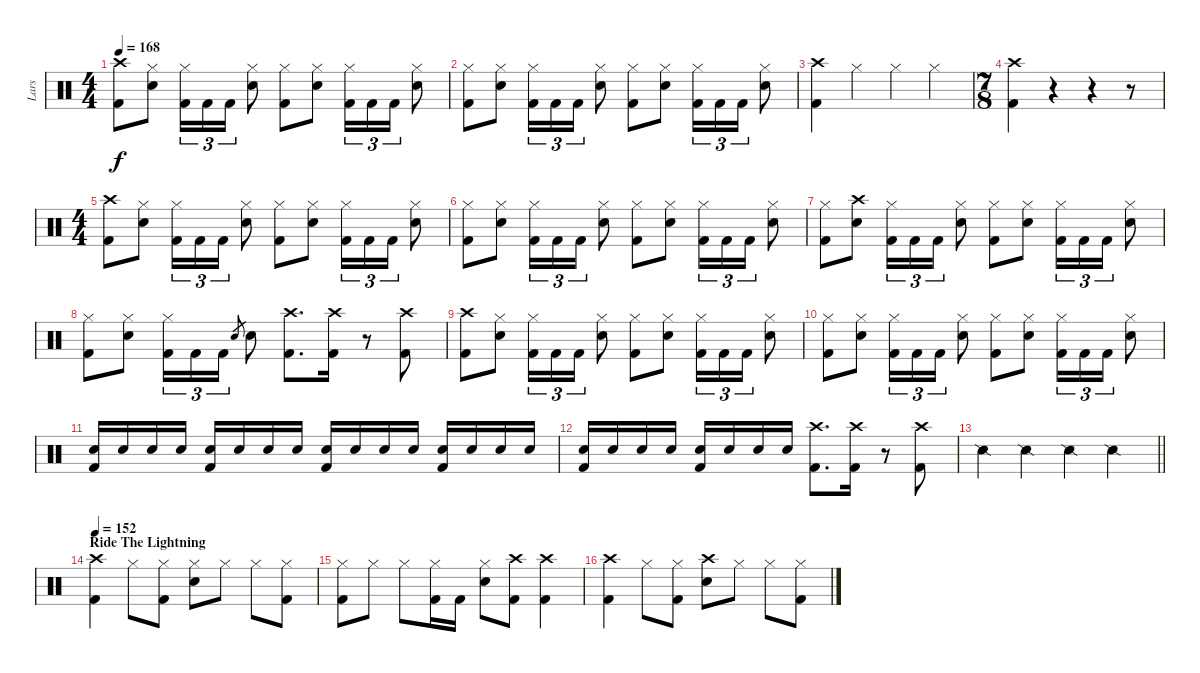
\track ("Lars" "Lars") {instrument percussion}
\staff {score}
\articulation defaults
\ts (4 4)
\tempo 168
\clef neutral
\ks c
("Crash high (hit)" "Kick (hit) 2").8{dy f} ("Hi-Hat (closed)" "Snare (hit) 2").8 ("Hi-Hat (closed)" "Kick (hit) 2").16{tu (3 2)} "Kick (hit) 2".16{tu (3 2)} "Kick (hit) 2".16{tu (3 2)} ("Hi-Hat (closed)" "Snare (hit) 2").8 ("Hi-Hat (closed)" "Kick (hit) 2").8 ("Hi-Hat (closed)" "Snare (hit) 2").8 ("Hi-Hat (closed)" "Kick (hit) 2").16{tu (3 2)} "Kick (hit) 2".16{tu (3 2)} "Kick (hit) 2".16{tu (3 2)} ("Hi-Hat (closed)" "Snare (hit) 2").8 |
("Hi-Hat (closed)" "Kick (hit) 2").8 ("Hi-Hat (closed)" "Snare (hit) 2").8 ("Hi-Hat (closed)" "Kick (hit) 2").16{tu (3 2)} "Kick (hit) 2".16{tu (3 2)} "Kick (hit) 2".16{tu (3 2)} ("Hi-Hat (closed)" "Snare (hit) 2").8 ("Hi-Hat (closed)" "Kick (hit) 2").8 ("Hi-Hat (closed)" "Snare (hit) 2").8 ("Hi-Hat (closed)" "Kick (hit) 2").16{tu (3 2)} "Kick (hit) 2".16{tu (3 2)} "Kick (hit) 2".16{tu (3 2)} ("Hi-Hat (closed)" "Snare (hit) 2").8 |
("Crash high (hit)" "Kick (hit) 2").4 "Hi-Hat (closed)".4 "Hi-Hat (closed)".4 "Hi-Hat (closed)".4 |
\ts (7 8)
("Crash high (hit)" "Kick (hit) 2").4 r.4 r.4 r.8 |
\ts (4 4)
("Crash high (hit)" "Kick (hit) 2").8 ("Hi-Hat (closed)" "Snare (hit) 2").8 ("Hi-Hat (closed)" "Kick (hit) 2").16{tu (3 2)} "Kick (hit) 2".16{tu (3 2)} "Kick (hit) 2".16{tu (3 2)} ("Hi-Hat (closed)" "Snare (hit) 2").8 ("Hi-Hat (closed)" "Kick (hit) 2").8 ("Hi-Hat (closed)" "Snare (hit) 2").8 ("Hi-Hat (closed)" "Kick (hit) 2").16{tu (3 2)} "Kick (hit) 2".16{tu (3 2)} "Kick (hit) 2".16{tu (3 2)} ("Hi-Hat (closed)" "Snare (hit) 2").8 |
("Hi-Hat (closed)" "Kick (hit) 2").8 ("Hi-Hat (closed)" "Snare (hit) 2").8 ("Hi-Hat (closed)" "Kick (hit) 2").16{tu (3 2)} "Kick (hit) 2".16{tu (3 2)} "Kick (hit) 2".16{tu (3 2)} ("Hi-Hat (closed)" "Snare (hit) 2").8 ("Hi-Hat (closed)" "Kick (hit) 2").8 ("Hi-Hat (closed)" "Snare (hit) 2").8 ("Hi-Hat (closed)" "Kick (hit) 2").16{tu (3 2)} "Kick (hit) 2".16{tu (3 2)} "Kick (hit) 2".16{tu (3 2)} ("Hi-Hat (closed)" "Snare (hit) 2").8 |
("Hi-Hat (closed)" "Kick (hit) 2").8 ("Crash high (hit)" "Snare (hit) 2").8 ("Hi-Hat (closed)" "Kick (hit) 2").16{tu (3 2)} "Kick (hit) 2".16{tu (3 2)} "Kick (hit) 2".16{tu (3 2)} ("Hi-Hat (closed)" "Snare (hit) 2").8 ("Hi-Hat (closed)" "Kick (hit) 2").8 ("Hi-Hat (closed)" "Snare (hit) 2").8 ("Hi-Hat (closed)" "Kick (hit) 2").16{tu (3 2)} "Kick (hit) 2".16{tu (3 2)} "Kick (hit) 2".16{tu (3 2)} ("Hi-Hat (closed)" "Snare (hit) 2").8 |
("Hi-Hat (closed)" "Kick (hit) 2").8 ("Hi-Hat (closed)" "Snare (hit) 2").8 ("Hi-Hat (closed)" "Kick (hit) 2").16{tu (3 2)} "Kick (hit) 2".16{tu (3 2)} "Kick (hit) 2".16{tu (3 2)} "Snare (hit) 2".8{gr} "Snare (hit) 2".8 ("Crash high (hit)" "Kick (hit) 2").8{d} ("Crash high (hit)" "Kick (hit) 2").16 r.8 ("Crash high (hit)" "Kick (hit) 2").8 |
("Crash high (hit)" "Kick (hit) 2").8 ("Hi-Hat (closed)" "Snare (hit) 2").8 ("Hi-Hat (closed)" "Kick (hit) 2").16{tu (3 2)} "Kick (hit) 2".16{tu (3 2)} "Kick (hit) 2".16{tu (3 2)} ("Hi-Hat (closed)" "Snare (hit) 2").8 ("Hi-Hat (closed)" "Kick (hit) 2").8 ("Hi-Hat (closed)" "Snare (hit) 2").8 ("Hi-Hat (closed)" "Kick (hit) 2").16{tu (3 2)} "Kick (hit) 2".16{tu (3 2)} "Kick (hit) 2".16{tu (3 2)} ("Hi-Hat (closed)" "Snare (hit) 2").8 |
("Hi-Hat (closed)" "Kick (hit) 2").8 ("Hi-Hat (closed)" "Snare (hit) 2").8 ("Hi-Hat (closed)" "Kick (hit) 2").16{tu (3 2)} "Kick (hit) 2".16{tu (3 2)} "Kick (hit) 2".16{tu (3 2)} ("Hi-Hat (closed)" "Snare (hit) 2").8 ("Hi-Hat (closed)" "Kick (hit) 2").8 ("Hi-Hat (closed)" "Snare (hit) 2").8 ("Hi-Hat (closed)" "Kick (hit) 2").16{tu (3 2)} "Kick (hit) 2".16{tu (3 2)} "Kick (hit) 2".16{tu (3 2)} ("Hi-Hat (closed)" "Snare (hit) 2").8 |
("Snare (hit) 2" "Kick (hit) 2").16 "Snare (hit) 2".16 "Snare (hit) 2".16 "Snare (hit) 2".16 ("Snare (hit) 2" "Kick (hit) 2").16 "Snare (hit) 2".16 "Snare (hit) 2".16 "Snare (hit) 2".16 ("Snare (hit) 2" "Kick (hit) 2").16 "Snare (hit) 2".16 "Snare (hit) 2".16 "Snare (hit) 2".16 ("Snare (hit) 2" "Kick (hit) 2").16 "Snare (hit) 2".16 "Snare (hit) 2".16 "Snare (hit) 2".16 |
("Snare (hit) 2" "Kick (hit) 2").16 "Snare (hit) 2".16 "Snare (hit) 2".16 "Snare (hit) 2".16 ("Snare (hit) 2" "Kick (hit) 2").16 "Snare (hit) 2".16 "Snare (hit) 2".16 "Snare (hit) 2".16 ("Crash high (hit)" "Kick (hit) 2").8{d} ("Crash high (hit)" "Kick (hit) 2").16 r.8 ("Crash high (hit)" "Kick (hit) 2").8 |
\barLineRight lightlight "Snare (side stick) 2".4 "Snare (side stick) 2".4 "Snare (side stick) 2".4 "Snare (side stick) 2".4
|
\section ("" "Ride The Lightning")
\tempo 152
("Crash high (hit)" "Kick (hit) 2").4 "Hi-Hat (closed)".8 ("Hi-Hat (closed)" "Kick (hit) 2").8 ("Hi-Hat (closed)" "Snare (hit) 2").8 "Hi-Hat (closed)".8 "Hi-Hat (closed)".8 ("Hi-Hat (closed)" "Kick (hit) 2").8 |
("Hi-Hat (closed)" "Kick (hit) 2").8 "Hi-Hat (closed)".8 "Hi-Hat (closed)".8 ("Hi-Hat (closed)" "Kick (hit) 2").16 "Kick (hit) 2".16 ("Hi-Hat (closed)" "Snare (hit) 2").8 ("Crash high (hit)" "Kick (hit) 2").8 ("Crash high (hit)" "Kick (hit) 2").4 |
("Crash high (hit)" "Kick (hit) 2").4 "Hi-Hat (closed)".8 ("Hi-Hat (closed)" "Kick (hit) 2").8 ("Crash high (hit)" "Snare (hit) 2").8 "Hi-Hat (closed)".8 "Hi-Hat (closed)".8 ("Hi-Hat (closed)" "Kick (hit) 2").8
